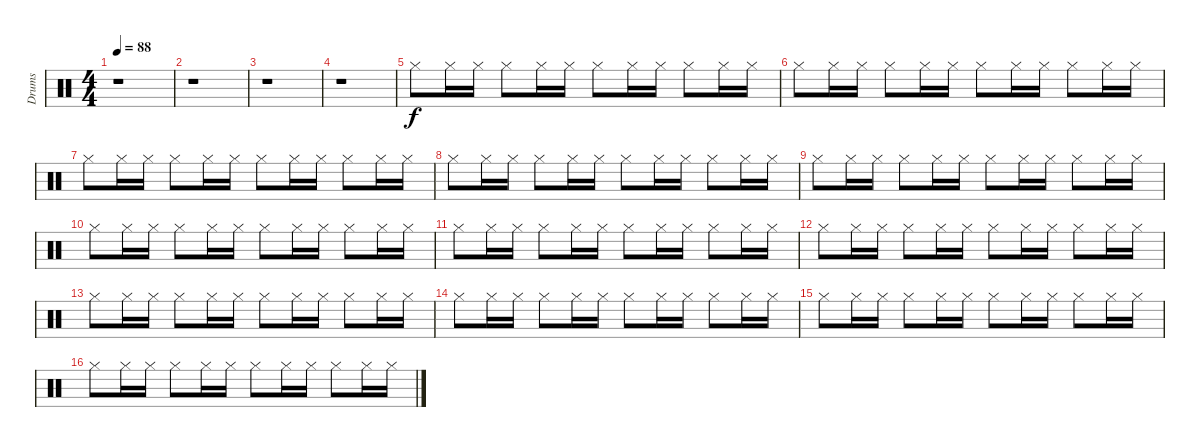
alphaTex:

\track ("Drums" "Drums") {instrument percussion}
\staff {score}
\articulation defaults
\ts (4 4)
\tempo 88
\clef neutral
\ks c
r.1{dy f} |
r.1 |
r.1 |
r.1 |
"Hi-Hat (closed)".8 "Hi-Hat (closed)".16 "Hi-Hat (closed)".16 "Hi-Hat (closed)".8 "Hi-Hat (closed)".16 "Hi-Hat (closed)".16 "Hi-Hat (closed)".8 "Hi-Hat (closed)".16 "Hi-Hat (closed)".16 "Hi-Hat (closed)".8 "Hi-Hat (closed)".16 "Hi-Hat (closed)".16 |
"Hi-Hat (closed)".8 "Hi-Hat (closed)".16 "Hi-Hat (closed)".16 "Hi-Hat (closed)".8 "Hi-Hat (closed)".16 "Hi-Hat (closed)".16 "Hi-Hat (closed)".8 "Hi-Hat (closed)".16 "Hi-Hat (closed)".16 "Hi-Hat (closed)".8 "Hi-Hat (closed)".16 "Hi-Hat (closed)".16 |
"Hi-Hat (closed)".8 "Hi-Hat (closed)".16 "Hi-Hat (closed)".16 "Hi-Hat (closed)".8 "Hi-Hat (closed)".16 "Hi-Hat (closed)".16 "Hi-Hat (closed)".8 "Hi-Hat (closed)".16 "Hi-Hat (closed)".16 "Hi-Hat (closed)".8 "Hi-Hat (closed)".16 "Hi-Hat (closed)".16 |
"Hi-Hat (closed)".8 "Hi-Hat (closed)".16 "Hi-Hat (closed)".16 "Hi-Hat (closed)".8 "Hi-Hat (closed)".16 "Hi-Hat (closed)".16 "Hi-Hat (closed)".8 "Hi-Hat (closed)".16 "Hi-Hat (closed)".16 "Hi-Hat (closed)".8 "Hi-Hat (closed)".16 "Hi-Hat (closed)".16 |
"Hi-Hat (closed)".8 "Hi-Hat (closed)".16 "Hi-Hat (closed)".16 "Hi-Hat (closed)".8 "Hi-Hat (closed)".16 "Hi-Hat (closed)".16 "Hi-Hat (closed)".8 "Hi-Hat (closed)".16 "Hi-Hat (closed)".16 "Hi-Hat (closed)".8 "Hi-Hat (closed)".16 "Hi-Hat (closed)".16 |
"Hi-Hat (closed)".8 "Hi-Hat (closed)".16 "Hi-Hat (closed)".16 "Hi-Hat (closed)".8 "Hi-Hat (closed)".16 "Hi-Hat (closed)".16 "Hi-Hat (closed)".8 "Hi-Hat (closed)".16 "Hi-Hat (closed)".16 "Hi-Hat (closed)".8 "Hi-Hat (closed)".16 "Hi-Hat (closed)".16 |
"Hi-Hat (closed)".8 "Hi-Hat (closed)".16 "Hi-Hat (closed)".16 "Hi-Hat (closed)".8 "Hi-Hat (closed)".16 "Hi-Hat (closed)".16 "Hi-Hat (closed)".8 "Hi-Hat (closed)".16 "Hi-Hat (closed)".16 "Hi-Hat (closed)".8 "Hi-Hat (closed)".16 "Hi-Hat (closed)".16 |
"Hi-Hat (closed)".8 "Hi-Hat (closed)".16 "Hi-Hat (closed)".16 "Hi-Hat (closed)".8 "Hi-Hat (closed)".16 "Hi-Hat (closed)".16 "Hi-Hat (closed)".8 "Hi-Hat (closed)".16 "Hi-Hat (closed)".16 "Hi-Hat (closed)".8 "Hi-Hat (closed)".16 "Hi-Hat (closed)".16 |
"Hi-Hat (closed)".8 "Hi-Hat (closed)".16 "Hi-Hat (closed)".16 "Hi-Hat (closed)".8 "Hi-Hat (closed)".16 "Hi-Hat (closed)".16 "Hi-Hat (closed)".8 "Hi-Hat (closed)".16 "Hi-Hat (closed)".16 "Hi-Hat (closed)".8 "Hi-Hat (closed)".16 "Hi-Hat (closed)".16 |
"Hi-Hat (closed)".8 "Hi-Hat (closed)".16 "Hi-Hat (closed)".16 "Hi-Hat (closed)".8 "Hi-Hat (closed)".16 "Hi-Hat (closed)".16 "Hi-Hat (closed)".8 "Hi-Hat (closed)".16 "Hi-Hat (closed)".16 "Hi-Hat (closed)".8 "Hi-Hat (closed)".16 "Hi-Hat (closed)".16 |
"Hi-Hat (closed)".8 "Hi-Hat (closed)".16 "Hi-Hat (closed)".16 "Hi-Hat (closed)".8 "Hi-Hat (closed)".16 "Hi-Hat (closed)".16 "Hi-Hat (closed)".8 "Hi-Hat (closed)".16 "Hi-Hat (closed)".16 "Hi-Hat (closed)".8 "Hi-Hat (closed)".16 "Hi-Hat (closed)".16 |
"Hi-Hat (closed)".8 "Hi-Hat (closed)".16 "Hi-Hat (closed)".16 "Hi-Hat (closed)".8 "Hi-Hat (closed)".16 "Hi-Hat (closed)".16 "Hi-Hat (closed)".8 "Hi-Hat (closed)".16 "Hi-Hat (closed)".16 "Hi-Hat (closed)".8 "Hi-Hat (closed)".16 "Hi-Hat (closed)".16
